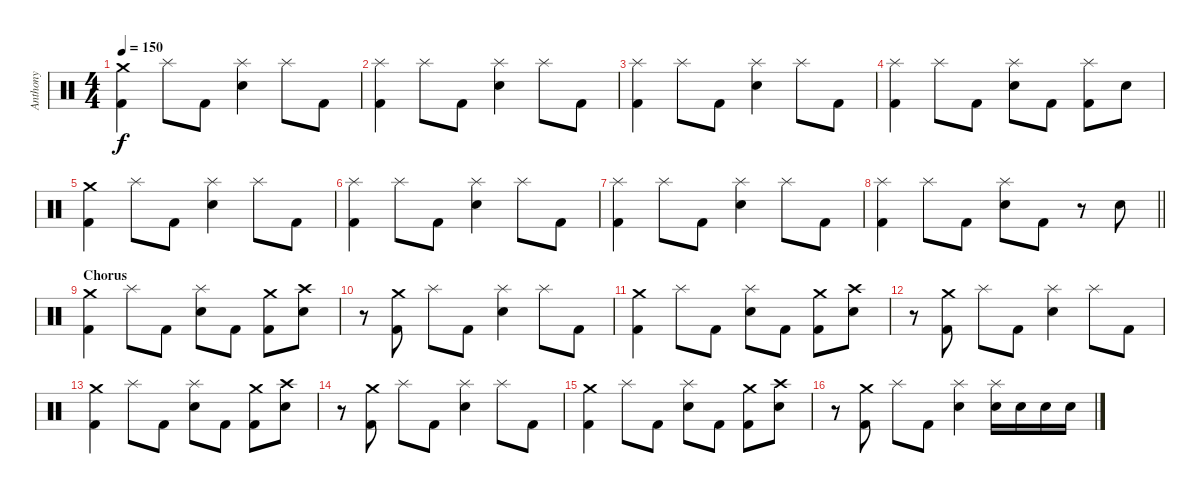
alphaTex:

\track ("Anthony" "Anthony") {instrument percussion}
\staff {score}
\articulation defaults
\ts (4 4)
\tempo 150
\clef neutral
\ks c
("Crash medium (hit)" "Kick (hit) 2").4{dy f} "Splash (hit)".8 "Kick (hit) 2".8 ("Splash (hit)" "Electric Snare (hit)").4 "Splash (hit)".8 "Kick (hit) 2".8 |
("Splash (hit)" "Kick (hit) 2").4 "Splash (hit)".8 "Kick (hit) 2".8 ("Splash (hit)" "Electric Snare (hit)").4 "Splash (hit)".8 "Kick (hit) 2".8 |
("Splash (hit)" "Kick (hit) 2").4 "Splash (hit)".8 "Kick (hit) 2".8 ("Splash (hit)" "Electric Snare (hit)").4 "Splash (hit)".8 "Kick (hit) 2".8 |
("Splash (hit)" "Kick (hit) 2").4 "Splash (hit)".8 "Kick (hit) 2".8 ("Splash (hit)" "Electric Snare (hit)").8 "Kick (hit) 2".8 ("Splash (hit)" "Kick (hit) 2").8 "Electric Snare (hit)".8 |
("Crash medium (hit)" "Kick (hit) 2").4 "Splash (hit)".8 "Kick (hit) 2".8 ("Splash (hit)" "Electric Snare (hit)").4 "Splash (hit)".8 "Kick (hit) 2".8 |
("Splash (hit)" "Kick (hit) 2").4 "Splash (hit)".8 "Kick (hit) 2".8 ("Splash (hit)" "Electric Snare (hit)").4 "Splash (hit)".8 "Kick (hit) 2".8 |
("Splash (hit)" "Kick (hit) 2").4 "Splash (hit)".8 "Kick (hit) 2".8 ("Splash (hit)" "Electric Snare (hit)").4 "Splash (hit)".8 "Kick (hit) 2".8 |
\barLineRight lightlight
("Splash (hit)" "Kick (hit) 2").4 "Splash (hit)".8 "Kick (hit) 2".8 ("Splash (hit)" "Electric Snare (hit)").8 "Kick (hit) 2".8 r.8 "Electric Snare (hit)".8 |
\section ("" "Chorus")
("Crash medium (hit)" "Kick (hit) 2").4 "Splash (hit)".8 "Kick (hit) 2".8 ("Splash (hit)" "Electric Snare (hit)").8 "Kick (hit) 2".8 ("Crash medium (hit)" "Kick (hit) 2").8 ("Crash high (hit)" "Electric Snare (hit)").8 |
r.8 ("Crash medium (hit)" "Kick (hit) 2").8 "Splash (hit)".8 "Kick (hit) 2".8 ("Splash (hit)" "Electric Snare (hit)").4 "Splash (hit)".8 "Kick (hit) 2".8 |
("Crash medium (hit)" "Kick (hit) 2").4 "Splash (hit)".8 "Kick (hit) 2".8 ("Splash (hit)" "Electric Snare (hit)").8 "Kick (hit) 2".8 ("Crash medium (hit)" "Kick (hit) 2").8 ("Crash high (hit)" "Electric Snare (hit)").8 |
r.8 ("Crash medium (hit)" "Kick (hit) 2").8 "Splash (hit)".8 "Kick (hit) 2".8 ("Splash (hit)" "Electric Snare (hit)").4 "Splash (hit)".8 "Kick (hit) 2".8 |
("Crash medium (hit)" "Kick (hit) 2").4 "Splash (hit)".8 "Kick (hit) 2".8 ("Splash (hit)" "Electric Snare (hit)").8 "Kick (hit) 2".8 ("Crash medium (hit)" "Kick (hit) 2").8 ("Crash high (hit)" "Electric Snare (hit)").8 |
r.8 ("Crash medium (hit)" "Kick (hit) 2").8 "Splash (hit)".8 "Kick (hit) 2".8 ("Splash (hit)" "Electric Snare (hit)").4 "Splash (hit)".8 "Kick (hit) 2".8 |
("Crash medium (hit)" "Kick (hit) 2").4 "Splash (hit)".8 "Kick (hit) 2".8 ("Splash (hit)" "Electric Snare (hit)").8 "Kick (hit) 2".8 ("Crash medium (hit)" "Kick (hit) 2").8 ("Crash high (hit)" "Electric Snare (hit)").8 |
r.8 ("Crash medium (hit)" "Kick (hit) 2").8 "Splash (hit)".8 "Kick (hit) 2".8 ("Splash (hit)" "Electric Snare (hit)").4 ("Splash (hit)" "Electric Snare (hit)").16 "Electric Snare (hit)".16 "Electric Snare (hit)".16 "Electric Snare (hit)".16
